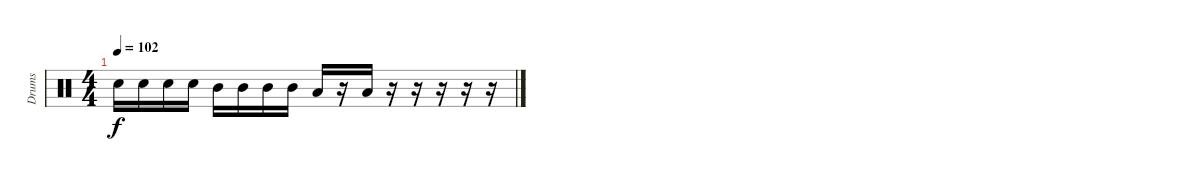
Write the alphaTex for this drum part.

\track ("Drums" "Drums") {instrument percussion}
\staff {score}
\articulation defaults
\ts (4 4)
\tempo 102
\clef neutral
\ks c "Snare (hit) 2".16{dy f} "Snare (hit) 2".16 "Snare (hit) 2".16 "Snare (hit) 2".16 "Mid Tom (hit)".16 "Mid Tom (hit)".16 "Mid Tom (hit)".16 "Mid Tom (hit)".16 "Low Tom (hit)".16
r.16 "Low Tom (hit)".16 r.16 r.16 r.16 r.16 r.16
